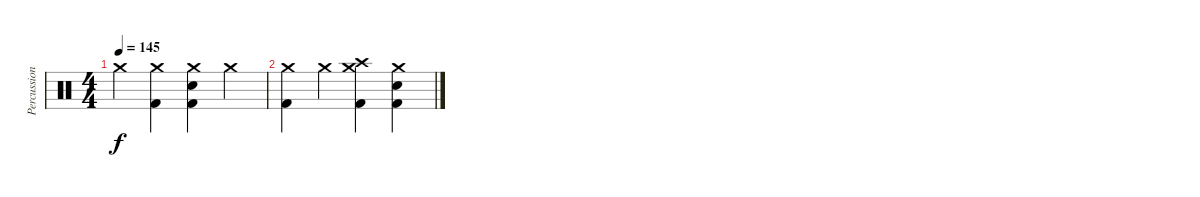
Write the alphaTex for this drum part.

\track ("Percussion" "Percussion") {instrument percussion}
\staff
\articulation defaults
\ts (4 4)
\tempo 145
\clef neutral
\ks c "Crash medium (hit)".4{dy f}
("Kick (hit) 2" "Crash medium (hit)").4 ("Kick (hit) 2" "Electric Snare (hit)" "Crash medium (hit)").4 "Crash medium (hit)".4 |
("Kick (hit) 2" "Crash medium (hit)").4 "Crash medium (hit)".4 ("Kick (hit) 2" "Crash high (hit)" "Crash medium (hit)").4 ("Kick (hit) 2" "Electric Snare (hit)" "Crash medium (hit)").4
